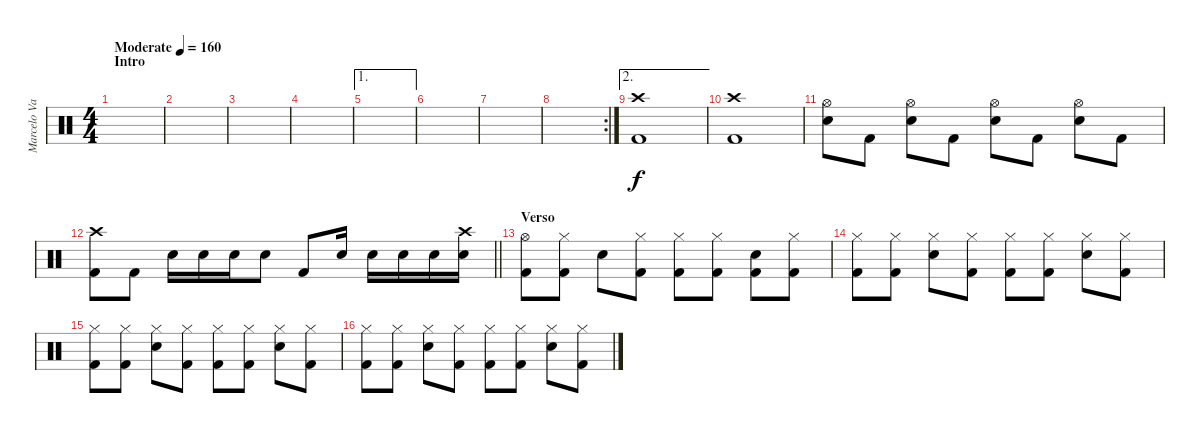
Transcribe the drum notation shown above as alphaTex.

\track ("Marcelo Valenzuela (Bateria)" "Marcelo Va") {instrument percussion}
\staff {score}
\articulation defaults
\ts (4 4)
\section ("" "Intro")
\tempo (160 "Moderate")
\clef neutral
\ks c
|
|
|
|
\ae 1
|
|
|
\rc 2
|
\ae 2
("Crash high (hit)" "Kick (hit) 2").1 |
("Crash high (hit)" "Kick (hit) 2").1 |
("Hi-Hat (open)" "Electric Snare (hit)").8 "Kick (hit) 2".8 ("Hi-Hat (open)" "Electric Snare (hit)").8 "Kick (hit) 2".8 ("Hi-Hat (open)" "Electric Snare (hit)").8 "Kick (hit) 2".8 ("Hi-Hat (open)" "Electric Snare (hit)").8 "Kick (hit) 2".8 |
\barLineRight lightlight
("Crash high (hit)" "Kick (hit) 2").8 "Kick (hit) 2".8 "Electric Snare (hit)".16 "Electric Snare (hit)".16 "Electric Snare (hit)".16 "Electric Snare (hit)".8 "Kick (hit) 2".8 "Electric Snare (hit)".16 "Electric Snare (hit)".16 "Electric Snare (hit)".16 "Electric Snare (hit)".16 ("Crash high (hit)" "Electric Snare (hit)").16 |
\section ("" "Verso ")
("Hi-Hat (open)" "Kick (hit) 2").8 ("Hi-Hat (closed)" "Kick (hit) 2").8 "Electric Snare (hit)".8 ("Hi-Hat (closed)" "Kick (hit) 2").8 ("Hi-Hat (closed)" "Kick (hit) 2").8 ("Hi-Hat (closed)" "Kick (hit) 2").8 ("Electric Snare (hit)" "Kick (hit) 2").8 ("Hi-Hat (closed)" "Kick (hit) 2").8 |
("Hi-Hat (closed)" "Kick (hit) 2").8 ("Hi-Hat (closed)" "Kick (hit) 2").8 ("Hi-Hat (closed)" "Electric Snare (hit)").8 ("Hi-Hat (closed)" "Kick (hit) 2").8 ("Hi-Hat (closed)" "Kick (hit) 2").8 ("Hi-Hat (closed)" "Kick (hit) 2").8 ("Hi-Hat (closed)" "Electric Snare (hit)").8 ("Hi-Hat (closed)" "Kick (hit) 2").8 |
("Hi-Hat (closed)" "Kick (hit) 2").8 ("Hi-Hat (closed)" "Kick (hit) 2").8 ("Hi-Hat (closed)" "Electric Snare (hit)").8 ("Hi-Hat (closed)" "Kick (hit) 2").8 ("Hi-Hat (closed)" "Kick (hit) 2").8 ("Hi-Hat (closed)" "Kick (hit) 2").8 ("Hi-Hat (closed)" "Electric Snare (hit)").8 ("Hi-Hat (closed)" "Kick (hit) 2").8 |
("Hi-Hat (closed)" "Kick (hit) 2").8 ("Hi-Hat (closed)" "Kick (hit) 2").8 ("Hi-Hat (closed)" "Electric Snare (hit)").8 ("Hi-Hat (closed)" "Kick (hit) 2").8 ("Hi-Hat (closed)" "Kick (hit) 2").8 ("Hi-Hat (closed)" "Kick (hit) 2").8 ("Hi-Hat (closed)" "Electric Snare (hit)").8 ("Hi-Hat (closed)" "Kick (hit) 2").8
